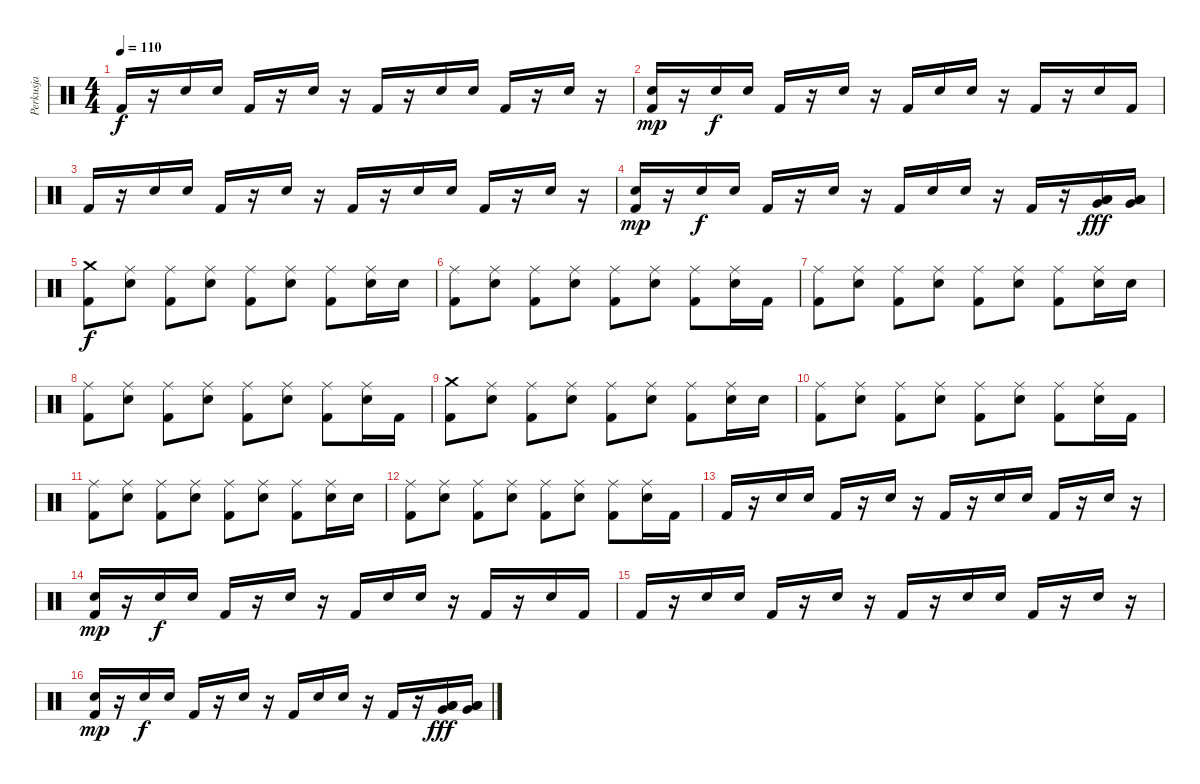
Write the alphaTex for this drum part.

\track ("Perkusja" "Perkusja") {instrument percussion}
\staff {score}
\articulation defaults
\ts (4 4)
\tempo 110
\clef neutral
\ks c "Kick (hit) 2".16{dy f}
r.16 "Electric Snare (hit)".16 "Electric Snare (hit)".16 "Kick (hit) 2".16 r.16 "Electric Snare (hit)".16 r.16 "Kick (hit) 2".16 r.16 "Electric Snare (hit)".16 "Electric Snare (hit)".16 "Kick (hit) 2".16 r.16 "Electric Snare (hit)".16 r.16 |
("Kick (hit) 2" "Electric Snare (hit)").16{dy mp} r.16 "Electric Snare (hit)".16{dy f} "Electric Snare (hit)".16 "Kick (hit) 2".16 r.16 "Electric Snare (hit)".16 r.16 "Kick (hit) 2".16 "Electric Snare (hit)".16 "Electric Snare (hit)".16 r.16 "Kick (hit) 2".16 r.16 "Electric Snare (hit)".16 "Kick (hit) 2".16 |
"Kick (hit) 2".16 r.16 "Electric Snare (hit)".16 "Electric Snare (hit)".16 "Kick (hit) 2".16 r.16 "Electric Snare (hit)".16 r.16 "Kick (hit) 2".16 r.16 "Electric Snare (hit)".16 "Electric Snare (hit)".16 "Kick (hit) 2".16 r.16 "Electric Snare (hit)".16 r.16 |
("Kick (hit) 2" "Electric Snare (hit)").16{dy mp} r.16 "Electric Snare (hit)".16{dy f} "Electric Snare (hit)".16 "Kick (hit) 2".16 r.16 "Electric Snare (hit)".16 r.16 "Kick (hit) 2".16 "Electric Snare (hit)".16 "Electric Snare (hit)".16 r.16 "Kick (hit) 2".16 r.16 ("Very Low Tom (hit)" "Low Floor Tom (hit)" "Low Tom (hit)").16{dy fff} ("Very Low Tom (hit)" "Low Floor Tom (hit)" "Low Tom (hit)").16 |
("Kick (hit) 2" "Crash medium (hit)").8{dy f} ("Electric Snare (hit)" "Ride (middle)").8 ("Kick (hit) 2" "Ride (middle)").8 ("Electric Snare (hit)" "Ride (middle)").8 ("Kick (hit) 2" "Ride (middle)").8 ("Electric Snare (hit)" "Ride (middle)").8 ("Kick (hit) 2" "Ride (middle)").8 ("Electric Snare (hit)" "Ride (middle)").16 "Electric Snare (hit)".16 |
("Kick (hit) 2" "Ride (middle)").8 ("Electric Snare (hit)" "Ride (middle)").8 ("Kick (hit) 2" "Ride (middle)").8 ("Electric Snare (hit)" "Ride (middle)").8 ("Kick (hit) 2" "Ride (middle)").8 ("Electric Snare (hit)" "Ride (middle)").8 ("Kick (hit) 2" "Ride (middle)").8 ("Electric Snare (hit)" "Ride (middle)").16 "Kick (hit) 2".16 |
("Kick (hit) 2" "Ride (middle)").8 ("Electric Snare (hit)" "Ride (middle)").8 ("Kick (hit) 2" "Ride (middle)").8 ("Electric Snare (hit)" "Ride (middle)").8 ("Kick (hit) 2" "Ride (middle)").8 ("Electric Snare (hit)" "Ride (middle)").8 ("Kick (hit) 2" "Ride (middle)").8 ("Electric Snare (hit)" "Ride (middle)").16 "Electric Snare (hit)".16 |
("Kick (hit) 2" "Ride (middle)").8 ("Electric Snare (hit)" "Ride (middle)").8 ("Kick (hit) 2" "Ride (middle)").8 ("Electric Snare (hit)" "Ride (middle)").8 ("Kick (hit) 2" "Ride (middle)").8 ("Electric Snare (hit)" "Ride (middle)").8 ("Kick (hit) 2" "Ride (middle)").8 ("Electric Snare (hit)" "Ride (middle)").16 "Kick (hit) 2".16 |
("Kick (hit) 2" "Crash medium (hit)").8 ("Electric Snare (hit)" "Ride (middle)").8 ("Kick (hit) 2" "Ride (middle)").8 ("Electric Snare (hit)" "Ride (middle)").8 ("Kick (hit) 2" "Ride (middle)").8 ("Electric Snare (hit)" "Ride (middle)").8 ("Kick (hit) 2" "Ride (middle)").8 ("Electric Snare (hit)" "Ride (middle)").16 "Electric Snare (hit)".16 |
("Kick (hit) 2" "Ride (middle)").8 ("Electric Snare (hit)" "Ride (middle)").8 ("Kick (hit) 2" "Ride (middle)").8 ("Electric Snare (hit)" "Ride (middle)").8 ("Kick (hit) 2" "Ride (middle)").8 ("Electric Snare (hit)" "Ride (middle)").8 ("Kick (hit) 2" "Ride (middle)").8 ("Electric Snare (hit)" "Ride (middle)").16 "Kick (hit) 2".16 |
("Kick (hit) 2" "Ride (middle)").8 ("Electric Snare (hit)" "Ride (middle)").8 ("Kick (hit) 2" "Ride (middle)").8 ("Electric Snare (hit)" "Ride (middle)").8 ("Kick (hit) 2" "Ride (middle)").8 ("Electric Snare (hit)" "Ride (middle)").8 ("Kick (hit) 2" "Ride (middle)").8 ("Electric Snare (hit)" "Ride (middle)").16 "Electric Snare (hit)".16 |
("Kick (hit) 2" "Ride (middle)").8 ("Electric Snare (hit)" "Ride (middle)").8 ("Kick (hit) 2" "Ride (middle)").8 ("Electric Snare (hit)" "Ride (middle)").8 ("Kick (hit) 2" "Ride (middle)").8 ("Electric Snare (hit)" "Ride (middle)").8 ("Kick (hit) 2" "Ride (middle)").8 ("Electric Snare (hit)" "Ride (middle)").16 "Kick (hit) 2".16 |
"Kick (hit) 2".16 r.16 "Electric Snare (hit)".16 "Electric Snare (hit)".16 "Kick (hit) 2".16 r.16 "Electric Snare (hit)".16 r.16 "Kick (hit) 2".16 r.16 "Electric Snare (hit)".16 "Electric Snare (hit)".16 "Kick (hit) 2".16 r.16 "Electric Snare (hit)".16 r.16 |
("Kick (hit) 2" "Electric Snare (hit)").16{dy mp} r.16 "Electric Snare (hit)".16{dy f} "Electric Snare (hit)".16 "Kick (hit) 2".16 r.16 "Electric Snare (hit)".16 r.16 "Kick (hit) 2".16 "Electric Snare (hit)".16 "Electric Snare (hit)".16 r.16 "Kick (hit) 2".16 r.16 "Electric Snare (hit)".16 "Kick (hit) 2".16 |
"Kick (hit) 2".16 r.16 "Electric Snare (hit)".16 "Electric Snare (hit)".16 "Kick (hit) 2".16 r.16 "Electric Snare (hit)".16 r.16 "Kick (hit) 2".16 r.16 "Electric Snare (hit)".16 "Electric Snare (hit)".16 "Kick (hit) 2".16 r.16 "Electric Snare (hit)".16 r.16 |
("Kick (hit) 2" "Electric Snare (hit)").16{dy mp} r.16 "Electric Snare (hit)".16{dy f} "Electric Snare (hit)".16 "Kick (hit) 2".16 r.16 "Electric Snare (hit)".16 r.16 "Kick (hit) 2".16 "Electric Snare (hit)".16 "Electric Snare (hit)".16 r.16 "Kick (hit) 2".16 r.16 ("Very Low Tom (hit)" "Low Floor Tom (hit)" "Low Tom (hit)").16{dy fff} ("Very Low Tom (hit)" "Low Floor Tom (hit)" "Low Tom (hit)").16
